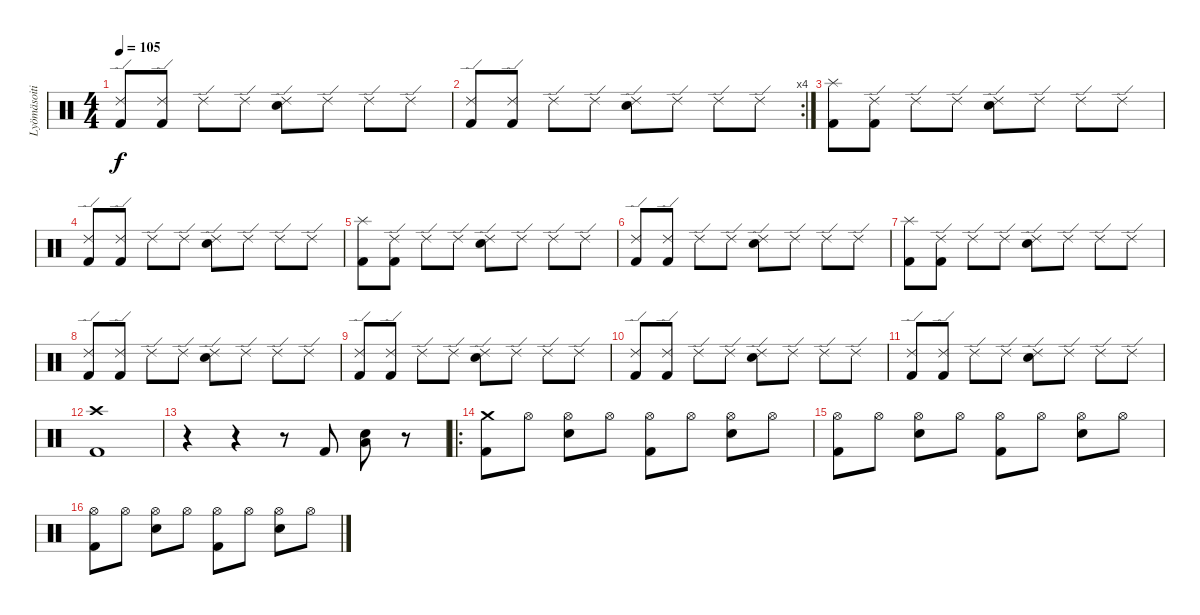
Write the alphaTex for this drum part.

\track ("Lyömäsoitin" "Lyömäsoiti") {instrument percussion}
\staff {score}
\articulation defaults
\ts (4 4)
\tempo 105
\clef neutral
\ks c
("Kick (hit) 2" "Ride (edge) 2").8{dy f} ("Kick (hit) 2" "Ride (edge) 2").8 "Ride (edge) 2".8 "Ride (edge) 2".8 ("Electric Snare (hit)" "Ride (edge) 2").8 "Ride (edge) 2".8 "Ride (edge) 2".8 "Ride (edge) 2".8 |
\rc 4
("Kick (hit) 2" "Ride (edge) 2").8 ("Kick (hit) 2" "Ride (edge) 2").8 "Ride (edge) 2".8 "Ride (edge) 2".8 ("Electric Snare (hit)" "Ride (edge) 2").8 "Ride (edge) 2".8 "Ride (edge) 2".8 "Ride (edge) 2".8 |
("Kick (hit) 2" "Splash (hit)").8 ("Kick (hit) 2" "Ride (edge) 2").8 "Ride (edge) 2".8 "Ride (edge) 2".8 ("Electric Snare (hit)" "Ride (edge) 2").8 "Ride (edge) 2".8 "Ride (edge) 2".8 "Ride (edge) 2".8 |
("Kick (hit) 2" "Ride (edge) 2").8 ("Kick (hit) 2" "Ride (edge) 2").8 "Ride (edge) 2".8 "Ride (edge) 2".8 ("Electric Snare (hit)" "Ride (edge) 2").8 "Ride (edge) 2".8 "Ride (edge) 2".8 "Ride (edge) 2".8 |
("Kick (hit) 2" "Splash (hit)").8 ("Kick (hit) 2" "Ride (edge) 2").8 "Ride (edge) 2".8 "Ride (edge) 2".8 ("Electric Snare (hit)" "Ride (edge) 2").8 "Ride (edge) 2".8 "Ride (edge) 2".8 "Ride (edge) 2".8 |
("Kick (hit) 2" "Ride (edge) 2").8 ("Kick (hit) 2" "Ride (edge) 2").8 "Ride (edge) 2".8 "Ride (edge) 2".8 ("Electric Snare (hit)" "Ride (edge) 2").8 "Ride (edge) 2".8 "Ride (edge) 2".8 "Ride (edge) 2".8 |
("Kick (hit) 2" "Splash (hit)").8 ("Kick (hit) 2" "Ride (edge) 2").8 "Ride (edge) 2".8 "Ride (edge) 2".8 ("Electric Snare (hit)" "Ride (edge) 2").8 "Ride (edge) 2".8 "Ride (edge) 2".8 "Ride (edge) 2".8 |
("Kick (hit) 2" "Ride (edge) 2").8 ("Kick (hit) 2" "Ride (edge) 2").8 "Ride (edge) 2".8 "Ride (edge) 2".8 ("Electric Snare (hit)" "Ride (edge) 2").8 "Ride (edge) 2".8 "Ride (edge) 2".8 "Ride (edge) 2".8 |
("Kick (hit) 2" "Ride (edge) 2").8 ("Kick (hit) 2" "Ride (edge) 2").8 "Ride (edge) 2".8 "Ride (edge) 2".8 ("Electric Snare (hit)" "Ride (edge) 2").8 "Ride (edge) 2".8 "Ride (edge) 2".8 "Ride (edge) 2".8 |
("Kick (hit) 2" "Ride (edge) 2").8 ("Kick (hit) 2" "Ride (edge) 2").8 "Ride (edge) 2".8 "Ride (edge) 2".8 ("Electric Snare (hit)" "Ride (edge) 2").8 "Ride (edge) 2".8 "Ride (edge) 2".8 "Ride (edge) 2".8 |
("Kick (hit) 2" "Ride (edge) 2").8 ("Kick (hit) 2" "Ride (edge) 2").8 "Ride (edge) 2".8 "Ride (edge) 2".8 ("Electric Snare (hit)" "Ride (edge) 2").8 "Ride (edge) 2".8 "Ride (edge) 2".8 "Ride (edge) 2".8 |
("Kick (hit) 2" "Crash high (hit)").1 |
r.4 r.4 r.8 "Kick (hit) 2".8 ("Electric Snare (hit)" "Low Tom (hit)").8 r.8 |
\ro
("Kick (hit) 2" "Crash medium (hit)").8 "Hi-Hat (open)".8 ("Electric Snare (hit)" "Hi-Hat (open)").8 "Hi-Hat (open)".8 ("Kick (hit) 2" "Hi-Hat (open)").8 "Hi-Hat (open)".8 ("Electric Snare (hit)" "Hi-Hat (open)").8 "Hi-Hat (open)".8 |
("Kick (hit) 2" "Hi-Hat (open)").8 "Hi-Hat (open)".8 ("Electric Snare (hit)" "Hi-Hat (open)").8 "Hi-Hat (open)".8 ("Kick (hit) 2" "Hi-Hat (open)").8 "Hi-Hat (open)".8 ("Electric Snare (hit)" "Hi-Hat (open)").8 "Hi-Hat (open)".8 |
("Kick (hit) 2" "Hi-Hat (open)").8 "Hi-Hat (open)".8 ("Electric Snare (hit)" "Hi-Hat (open)").8 "Hi-Hat (open)".8 ("Kick (hit) 2" "Hi-Hat (open)").8 "Hi-Hat (open)".8 ("Electric Snare (hit)" "Hi-Hat (open)").8 "Hi-Hat (open)".8
